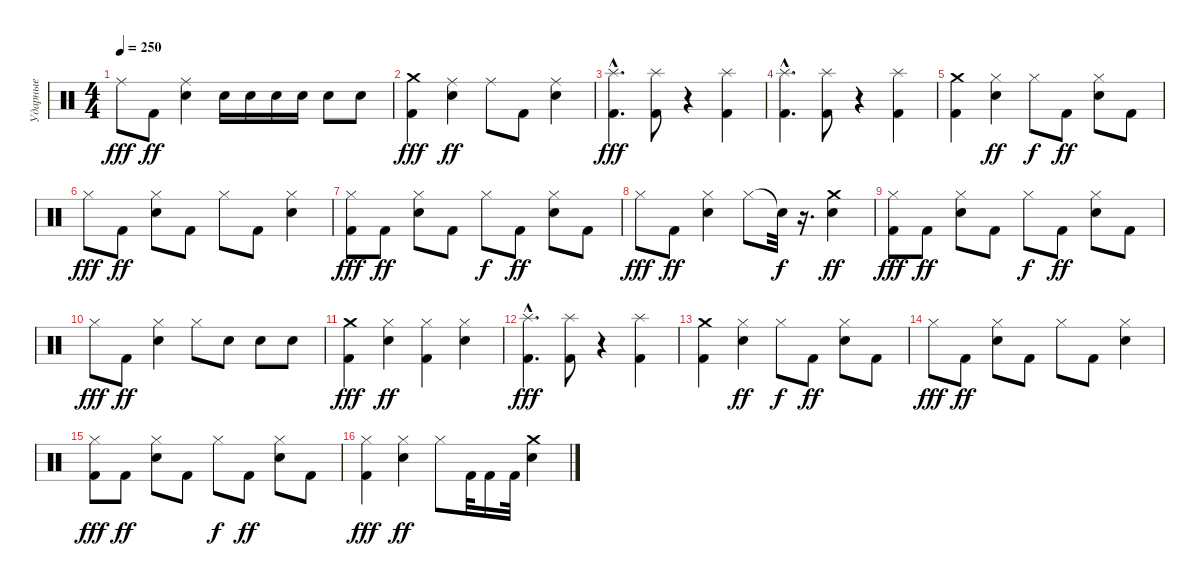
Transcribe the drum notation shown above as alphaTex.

\track ("Ударные" "Ударные") {instrument percussion}
\staff {score}
\articulation defaults
\ts (4 4)
\tempo 250
\clef neutral
\ks c "Ride (middle)".8{dy fff} "Kick (hit) 2".8{dy ff}
("Electric Snare (hit)" "Ride (middle)").4 "Electric Snare (hit)".16 "Electric Snare (hit)".16 "Electric Snare (hit)".16 "Electric Snare (hit)".16 "Electric Snare (hit)".8 "Electric Snare (hit)".8 |
("Kick (hit) 2" "Crash medium (hit)").4{dy fff} ("Electric Snare (hit)" "Ride (middle)").4{dy ff} "Ride (middle)".8 "Kick (hit) 2".8 ("Electric Snare (hit)" "Ride (middle)").4 |
("Kick (hit) 2"{hac} "Splash (hit)"{hac}).4{d dy fff} ("Kick (hit) 2" "Splash (hit)").8 r.4 ("Kick (hit) 2" "Splash (hit)").4 |
("Kick (hit) 2"{hac} "Splash (hit)"{hac}).4{d} ("Kick (hit) 2" "Splash (hit)").8 r.4 ("Kick (hit) 2" "Splash (hit)").4 |
("Kick (hit) 2" "Crash medium (hit)").4 ("Hi-Hat (closed)" "Electric Snare (hit)").4{dy ff} "Hi-Hat (closed)".8{dy f} "Kick (hit) 2".8{dy ff} ("Hi-Hat (closed)" "Electric Snare (hit)").8 "Kick (hit) 2".8 |
"Hi-Hat (closed)".8{dy fff} "Kick (hit) 2".8{dy ff} ("Hi-Hat (closed)" "Electric Snare (hit)").8 "Kick (hit) 2".8 "Hi-Hat (closed)".8 "Kick (hit) 2".8 ("Hi-Hat (closed)" "Electric Snare (hit)").4 |
("Kick (hit) 2" "Hi-Hat (closed)").8{dy fff} "Kick (hit) 2".8{dy ff} ("Hi-Hat (closed)" "Electric Snare (hit)").8 "Kick (hit) 2".8 "Hi-Hat (closed)".8{dy f} "Kick (hit) 2".8{dy ff} ("Hi-Hat (closed)" "Electric Snare (hit)").8 "Kick (hit) 2".8 |
"Hi-Hat (closed)".8{dy fff} "Kick (hit) 2".8{dy ff} ("Hi-Hat (closed)" "Electric Snare (hit)").4 "Hi-Hat (closed)".8 "Snare (hit)"{t}.32{dy f} r.16{d} ("Crash medium (hit)" "Electric Snare (hit)").4{dy ff} |
("Kick (hit) 2" "Hi-Hat (closed)").8{dy fff} "Kick (hit) 2".8{dy ff} ("Hi-Hat (closed)" "Electric Snare (hit)").8 "Kick (hit) 2".8 "Hi-Hat (closed)".8{dy f} "Kick (hit) 2".8{dy ff} ("Hi-Hat (closed)" "Electric Snare (hit)").8 "Kick (hit) 2".8 |
"Hi-Hat (closed)".8{dy fff} "Kick (hit) 2".8{dy ff} ("Hi-Hat (closed)" "Electric Snare (hit)").4 "Hi-Hat (closed)".8 "Electric Snare (hit)".8 "Electric Snare (hit)".8 "Electric Snare (hit)".8 |
("Kick (hit) 2" "Crash medium (hit)").4{dy fff} ("Hi-Hat (closed)" "Electric Snare (hit)").4{dy ff} ("Kick (hit) 2" "Hi-Hat (closed)").4 ("Hi-Hat (closed)" "Electric Snare (hit)").4 |
("Kick (hit) 2"{hac} "Splash (hit)"{hac}).4{d dy fff} ("Kick (hit) 2" "Splash (hit)").8 r.4 ("Kick (hit) 2" "Splash (hit)").4 |
("Kick (hit) 2" "Crash medium (hit)").4 ("Hi-Hat (closed)" "Electric Snare (hit)").4{dy ff} "Hi-Hat (closed)".8{dy f} "Kick (hit) 2".8{dy ff} ("Hi-Hat (closed)" "Electric Snare (hit)").8 "Kick (hit) 2".8 |
"Hi-Hat (closed)".8{dy fff} "Kick (hit) 2".8{dy ff} ("Hi-Hat (closed)" "Electric Snare (hit)").8 "Kick (hit) 2".8 "Hi-Hat (closed)".8 "Kick (hit) 2".8 ("Hi-Hat (closed)" "Electric Snare (hit)").4 |
("Kick (hit) 2" "Hi-Hat (closed)").8{dy fff} "Kick (hit) 2".8{dy ff} ("Hi-Hat (closed)" "Electric Snare (hit)").8 "Kick (hit) 2".8 "Hi-Hat (closed)".8{dy f} "Kick (hit) 2".8{dy ff} ("Hi-Hat (closed)" "Electric Snare (hit)").8 "Kick (hit) 2".8 |
("Kick (hit) 2" "Hi-Hat (closed)").4{dy fff} ("Hi-Hat (closed)" "Electric Snare (hit)").4{dy ff} "Hi-Hat (closed)".8 "Kick (hit) 2".32 "Kick (hit) 2".16 "Kick (hit) 2".32 ("Crash medium (hit)" "Electric Snare (hit)").4
